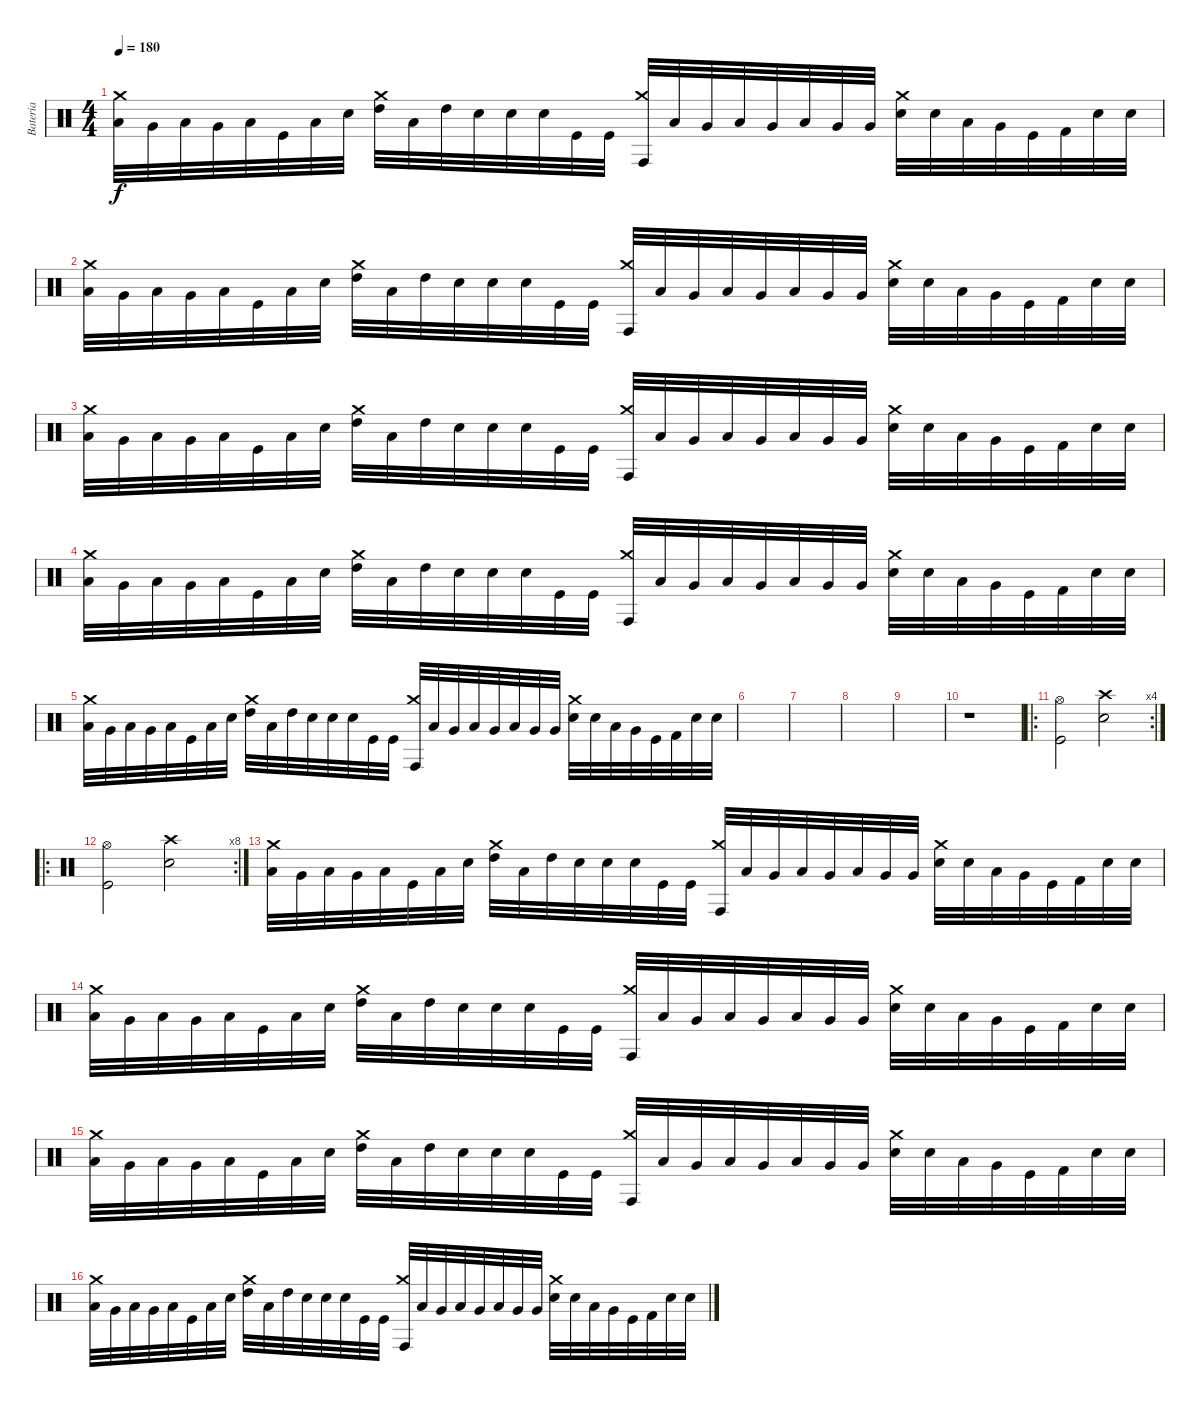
\track ("Bateria" "Bateria") {instrument percussion}
\staff {score}
\articulation defaults
\ts (4 4)
\tempo 180
\clef neutral
\ks c
("Low Tom (hit)" "Crash medium (hit)").32{dy f} "Very Low Tom (hit)".32 "Low Tom (hit)".32 "Very Low Tom (hit)".32 "Low Tom (hit)".32 "Kick (hit)".32 "Low Tom (hit)".32 "Electric Snare (hit)".32 ("High Tom (hit)" "Crash medium (hit)").32 "Low Tom (hit)".32 "High Tom (hit)".32 "Snare (hit) 2".32 "Electric Snare (hit)".32 "Electric Snare (hit)".32 "Kick (hit)".32 "Kick (hit)".32 ("Conga high (hit)" "Crash medium (hit)").32 "Low Tom (hit)".32 "Very Low Tom (hit)".32 "Low Tom (hit)".32 "Very Low Tom (hit)".32 "Low Tom (hit)".32 "Very Low Tom (hit)".32 "Very Low Tom (hit)".32 ("Electric Snare (hit)" "Crash medium (hit)").32 "Snare (hit) 2".32 "Low Tom (hit)".32 "Very Low Tom (hit)".32 "Kick (hit)".32 "Kick (hit) 2".32 "Snare (hit) 2".32 "Snare (hit) 2".32 |
("Low Tom (hit)" "Crash medium (hit)").32 "Very Low Tom (hit)".32 "Low Tom (hit)".32 "Very Low Tom (hit)".32 "Low Tom (hit)".32 "Kick (hit)".32 "Low Tom (hit)".32 "Electric Snare (hit)".32 ("High Tom (hit)" "Crash medium (hit)").32 "Low Tom (hit)".32 "High Tom (hit)".32 "Snare (hit) 2".32 "Electric Snare (hit)".32 "Electric Snare (hit)".32 "Kick (hit)".32 "Kick (hit)".32 ("Conga high (hit)" "Crash medium (hit)").32 "Low Tom (hit)".32 "Very Low Tom (hit)".32 "Low Tom (hit)".32 "Very Low Tom (hit)".32 "Low Tom (hit)".32 "Very Low Tom (hit)".32 "Very Low Tom (hit)".32 ("Electric Snare (hit)" "Crash medium (hit)").32 "Snare (hit) 2".32 "Low Tom (hit)".32 "Very Low Tom (hit)".32 "Kick (hit)".32 "Kick (hit) 2".32 "Snare (hit) 2".32 "Snare (hit) 2".32 |
("Low Tom (hit)" "Crash medium (hit)").32 "Very Low Tom (hit)".32 "Low Tom (hit)".32 "Very Low Tom (hit)".32 "Low Tom (hit)".32 "Kick (hit)".32 "Low Tom (hit)".32 "Electric Snare (hit)".32 ("High Tom (hit)" "Crash medium (hit)").32 "Low Tom (hit)".32 "High Tom (hit)".32 "Snare (hit) 2".32 "Electric Snare (hit)".32 "Electric Snare (hit)".32 "Kick (hit)".32 "Kick (hit)".32 ("Conga high (hit)" "Crash medium (hit)").32 "Low Tom (hit)".32 "Very Low Tom (hit)".32 "Low Tom (hit)".32 "Very Low Tom (hit)".32 "Low Tom (hit)".32 "Very Low Tom (hit)".32 "Very Low Tom (hit)".32 ("Electric Snare (hit)" "Crash medium (hit)").32 "Snare (hit) 2".32 "Low Tom (hit)".32 "Very Low Tom (hit)".32 "Kick (hit)".32 "Kick (hit) 2".32 "Snare (hit) 2".32 "Snare (hit) 2".32 |
("Low Tom (hit)" "Crash medium (hit)").32 "Very Low Tom (hit)".32 "Low Tom (hit)".32 "Very Low Tom (hit)".32 "Low Tom (hit)".32 "Kick (hit)".32 "Low Tom (hit)".32 "Electric Snare (hit)".32 ("High Tom (hit)" "Crash medium (hit)").32 "Low Tom (hit)".32 "High Tom (hit)".32 "Snare (hit) 2".32 "Electric Snare (hit)".32 "Electric Snare (hit)".32 "Kick (hit)".32 "Kick (hit)".32 ("Conga high (hit)" "Crash medium (hit)").32 "Low Tom (hit)".32 "Very Low Tom (hit)".32 "Low Tom (hit)".32 "Very Low Tom (hit)".32 "Low Tom (hit)".32 "Very Low Tom (hit)".32 "Very Low Tom (hit)".32 ("Electric Snare (hit)" "Crash medium (hit)").32 "Snare (hit) 2".32 "Low Tom (hit)".32 "Very Low Tom (hit)".32 "Kick (hit)".32 "Kick (hit) 2".32 "Snare (hit) 2".32 "Snare (hit) 2".32 |
("Low Tom (hit)" "Crash medium (hit)").32 "Very Low Tom (hit)".32 "Low Tom (hit)".32 "Very Low Tom (hit)".32 "Low Tom (hit)".32 "Kick (hit)".32 "Low Tom (hit)".32 "Electric Snare (hit)".32 ("High Tom (hit)" "Crash medium (hit)").32 "Low Tom (hit)".32 "High Tom (hit)".32 "Snare (hit) 2".32 "Electric Snare (hit)".32 "Electric Snare (hit)".32 "Kick (hit)".32 "Kick (hit)".32 ("Conga high (hit)" "Crash medium (hit)").32 "Low Tom (hit)".32 "Very Low Tom (hit)".32 "Low Tom (hit)".32 "Very Low Tom (hit)".32 "Low Tom (hit)".32 "Very Low Tom (hit)".32 "Very Low Tom (hit)".32 ("Electric Snare (hit)" "Crash medium (hit)").32 "Snare (hit) 2".32 "Low Tom (hit)".32 "Very Low Tom (hit)".32 "Kick (hit)".32 "Kick (hit) 2".32 "Snare (hit) 2".32 "Snare (hit) 2".32 |
|
|
|
|
r.1 |
\ro
\rc 4
("Kick (hit)" "Hi-Hat (open)").2 ("Electric Snare (hit)" "Crash high (hit)").2 |
\ro
\rc 8
("Kick (hit)" "Hi-Hat (open)").2 ("Electric Snare (hit)" "Crash high (hit)").2 |
("Low Tom (hit)" "Crash medium (hit)").32 "Very Low Tom (hit)".32 "Low Tom (hit)".32 "Very Low Tom (hit)".32 "Low Tom (hit)".32 "Kick (hit)".32 "Low Tom (hit)".32 "Electric Snare (hit)".32 ("High Tom (hit)" "Crash medium (hit)").32 "Low Tom (hit)".32 "High Tom (hit)".32 "Snare (hit) 2".32 "Electric Snare (hit)".32 "Electric Snare (hit)".32 "Kick (hit)".32 "Kick (hit)".32 ("Conga high (hit)" "Crash medium (hit)").32 "Low Tom (hit)".32 "Very Low Tom (hit)".32 "Low Tom (hit)".32 "Very Low Tom (hit)".32 "Low Tom (hit)".32 "Very Low Tom (hit)".32 "Very Low Tom (hit)".32 ("Electric Snare (hit)" "Crash medium (hit)").32 "Snare (hit) 2".32 "Low Tom (hit)".32 "Very Low Tom (hit)".32 "Kick (hit)".32 "Kick (hit) 2".32 "Snare (hit) 2".32 "Snare (hit) 2".32 |
("Low Tom (hit)" "Crash medium (hit)").32 "Very Low Tom (hit)".32 "Low Tom (hit)".32 "Very Low Tom (hit)".32 "Low Tom (hit)".32 "Kick (hit)".32 "Low Tom (hit)".32 "Electric Snare (hit)".32 ("High Tom (hit)" "Crash medium (hit)").32 "Low Tom (hit)".32 "High Tom (hit)".32 "Snare (hit) 2".32 "Electric Snare (hit)".32 "Electric Snare (hit)".32 "Kick (hit)".32 "Kick (hit)".32 ("Conga high (hit)" "Crash medium (hit)").32 "Low Tom (hit)".32 "Very Low Tom (hit)".32 "Low Tom (hit)".32 "Very Low Tom (hit)".32 "Low Tom (hit)".32 "Very Low Tom (hit)".32 "Very Low Tom (hit)".32 ("Electric Snare (hit)" "Crash medium (hit)").32 "Snare (hit) 2".32 "Low Tom (hit)".32 "Very Low Tom (hit)".32 "Kick (hit)".32 "Kick (hit) 2".32 "Snare (hit) 2".32 "Snare (hit) 2".32 |
("Low Tom (hit)" "Crash medium (hit)").32 "Very Low Tom (hit)".32 "Low Tom (hit)".32 "Very Low Tom (hit)".32 "Low Tom (hit)".32 "Kick (hit)".32 "Low Tom (hit)".32 "Electric Snare (hit)".32 ("High Tom (hit)" "Crash medium (hit)").32 "Low Tom (hit)".32 "High Tom (hit)".32 "Snare (hit) 2".32 "Electric Snare (hit)".32 "Electric Snare (hit)".32 "Kick (hit)".32 "Kick (hit)".32 ("Conga high (hit)" "Crash medium (hit)").32 "Low Tom (hit)".32 "Very Low Tom (hit)".32 "Low Tom (hit)".32 "Very Low Tom (hit)".32 "Low Tom (hit)".32 "Very Low Tom (hit)".32 "Very Low Tom (hit)".32 ("Electric Snare (hit)" "Crash medium (hit)").32 "Snare (hit) 2".32 "Low Tom (hit)".32 "Very Low Tom (hit)".32 "Kick (hit)".32 "Kick (hit) 2".32 "Snare (hit) 2".32 "Snare (hit) 2".32 |
("Low Tom (hit)" "Crash medium (hit)").32 "Very Low Tom (hit)".32 "Low Tom (hit)".32 "Very Low Tom (hit)".32 "Low Tom (hit)".32 "Kick (hit)".32 "Low Tom (hit)".32 "Electric Snare (hit)".32 ("High Tom (hit)" "Crash medium (hit)").32 "Low Tom (hit)".32 "High Tom (hit)".32 "Snare (hit) 2".32 "Electric Snare (hit)".32 "Electric Snare (hit)".32 "Kick (hit)".32 "Kick (hit)".32 ("Conga high (hit)" "Crash medium (hit)").32 "Low Tom (hit)".32 "Very Low Tom (hit)".32 "Low Tom (hit)".32 "Very Low Tom (hit)".32 "Low Tom (hit)".32 "Very Low Tom (hit)".32 "Very Low Tom (hit)".32 ("Electric Snare (hit)" "Crash medium (hit)").32 "Snare (hit) 2".32 "Low Tom (hit)".32 "Very Low Tom (hit)".32 "Kick (hit)".32 "Kick (hit) 2".32 "Snare (hit) 2".32 "Snare (hit) 2".32
